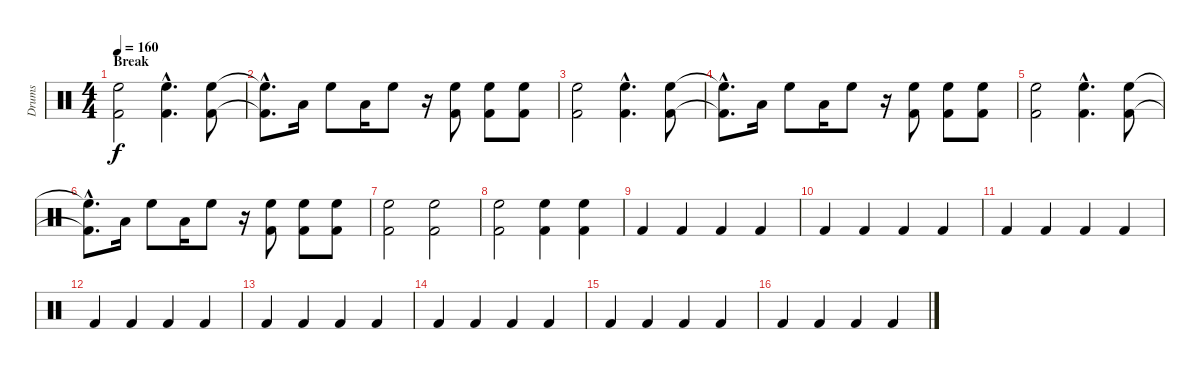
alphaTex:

\track ("Drums" "Drums") {instrument percussion}
\staff {score}
\articulation defaults
\ts (4 4)
\section ("" "Break")
\tempo 160
\clef neutral
\ks c
("High Floor Tom (hit)" "Kick (hit) 2").2{dy f} ("High Floor Tom (hit)"{hac} "Kick (hit) 2"{hac}).4{d} ("High Floor Tom (hit)" "Kick (hit) 2").8 |
("High Floor Tom (hit)"{hac t} "Kick (hit) 2"{hac t}).8{d} "Low Floor Tom (hit)".16 "High Floor Tom (hit)".8 "Low Floor Tom (hit)".16 "High Floor Tom (hit)".8 r.16 ("High Floor Tom (hit)" "Kick (hit) 2").8 ("High Floor Tom (hit)" "Kick (hit) 2").8 ("High Floor Tom (hit)" "Kick (hit) 2").8 |
("High Floor Tom (hit)" "Kick (hit) 2").2 ("High Floor Tom (hit)"{hac} "Kick (hit) 2"{hac}).4{d} ("High Floor Tom (hit)" "Kick (hit) 2").8 |
("High Floor Tom (hit)"{hac t} "Kick (hit) 2"{hac t}).8{d} "Low Floor Tom (hit)".16 "High Floor Tom (hit)".8 "Low Floor Tom (hit)".16 "High Floor Tom (hit)".8 r.16 ("High Floor Tom (hit)" "Kick (hit) 2").8 ("High Floor Tom (hit)" "Kick (hit) 2").8 ("High Floor Tom (hit)" "Kick (hit) 2").8 |
("High Floor Tom (hit)" "Kick (hit) 2").2 ("High Floor Tom (hit)"{hac} "Kick (hit) 2"{hac}).4{d} ("High Floor Tom (hit)" "Kick (hit) 2").8 |
("High Floor Tom (hit)"{hac t} "Kick (hit) 2"{hac t}).8{d} "Low Floor Tom (hit)".16 "High Floor Tom (hit)".8 "Low Floor Tom (hit)".16 "High Floor Tom (hit)".8 r.16 ("High Floor Tom (hit)" "Kick (hit) 2").8 ("High Floor Tom (hit)" "Kick (hit) 2").8 ("High Floor Tom (hit)" "Kick (hit) 2").8 |
("High Floor Tom (hit)" "Kick (hit) 2").2 ("High Floor Tom (hit)" "Kick (hit) 2").2 |
("High Floor Tom (hit)" "Kick (hit) 2").2 ("High Floor Tom (hit)" "Kick (hit) 2").4 ("High Floor Tom (hit)" "Kick (hit) 2").4 |
"Kick (hit) 2".4 "Kick (hit) 2".4 "Kick (hit) 2".4 "Kick (hit) 2".4 |
"Kick (hit) 2".4 "Kick (hit) 2".4 "Kick (hit) 2".4 "Kick (hit) 2".4 |
"Kick (hit) 2".4 "Kick (hit) 2".4 "Kick (hit) 2".4 "Kick (hit) 2".4 |
"Kick (hit) 2".4 "Kick (hit) 2".4 "Kick (hit) 2".4 "Kick (hit) 2".4 |
"Kick (hit) 2".4 "Kick (hit) 2".4 "Kick (hit) 2".4 "Kick (hit) 2".4 |
"Kick (hit) 2".4 "Kick (hit) 2".4 "Kick (hit) 2".4 "Kick (hit) 2".4 |
"Kick (hit) 2".4 "Kick (hit) 2".4 "Kick (hit) 2".4 "Kick (hit) 2".4 |
"Kick (hit) 2".4 "Kick (hit) 2".4 "Kick (hit) 2".4 "Kick (hit) 2".4
